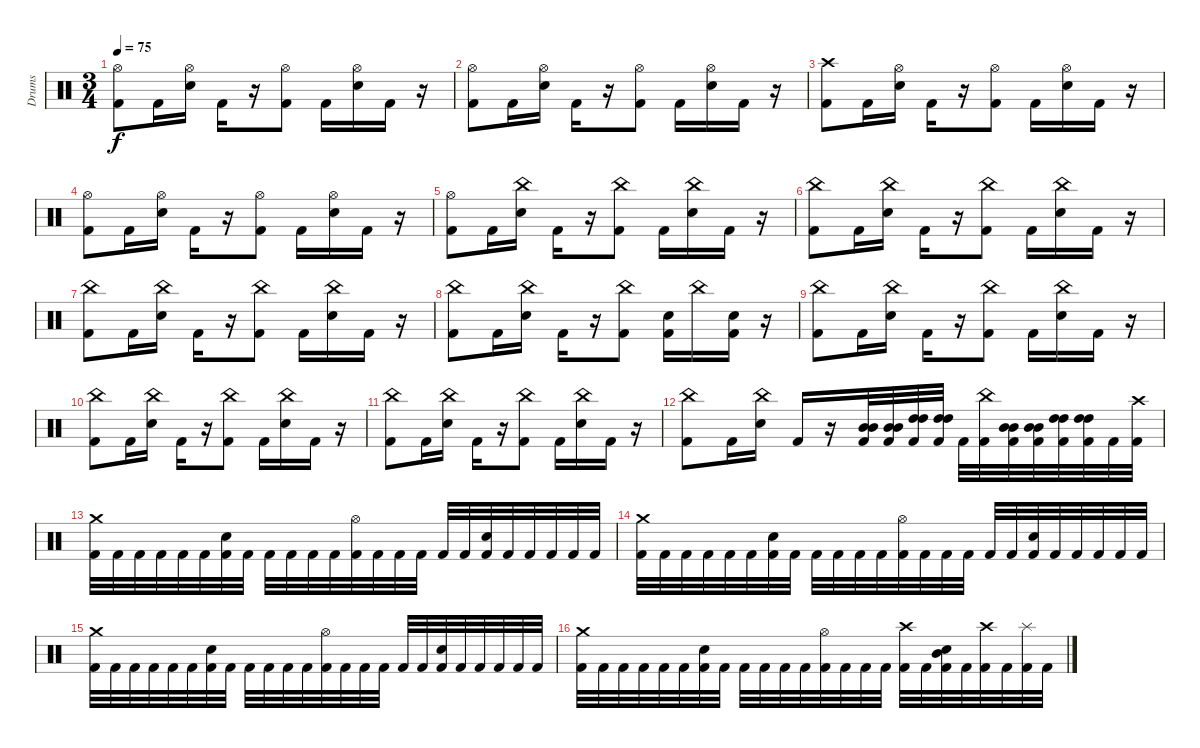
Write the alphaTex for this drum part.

\track ("Drums" "Drums") {instrument percussion}
\staff {score}
\articulation defaults
\ts (3 4)
\tempo 75
\clef neutral
\ks c
("Hi-Hat (open)" "Kick (hit) 2").8{dy f} "Kick (hit) 2".16 ("Hi-Hat (open)" "Snare (hit) 2").16 "Kick (hit) 2".16 r.16 ("Hi-Hat (open)" "Kick (hit) 2").8 "Kick (hit) 2".16 ("Hi-Hat (open)" "Snare (hit) 2").16 "Kick (hit) 2".16 r.16 |
("Hi-Hat (open)" "Kick (hit) 2").8 "Kick (hit) 2".16 ("Hi-Hat (open)" "Snare (hit) 2").16 "Kick (hit) 2".16 r.16 ("Hi-Hat (open)" "Kick (hit) 2").8 "Kick (hit) 2".16 ("Hi-Hat (open)" "Snare (hit) 2").16 "Kick (hit) 2".16 r.16 |
("Crash high (hit)" "Kick (hit) 2").8 "Kick (hit) 2".16 ("Hi-Hat (open)" "Snare (hit) 2").16 "Kick (hit) 2".16 r.16 ("Hi-Hat (open)" "Kick (hit) 2").8 "Kick (hit) 2".16 ("Hi-Hat (open)" "Snare (hit) 2").16 "Kick (hit) 2".16 r.16 |
("Hi-Hat (open)" "Kick (hit) 2").8 "Kick (hit) 2".16 ("Hi-Hat (open)" "Snare (hit) 2").16 "Kick (hit) 2".16 r.16 ("Hi-Hat (open)" "Kick (hit) 2").8 "Kick (hit) 2".16 ("Hi-Hat (open)" "Snare (hit) 2").16 "Kick (hit) 2".16 r.16 |
("Hi-Hat (open)" "Kick (hit) 2").8 "Kick (hit) 2".16 ("China (hit)" "Snare (hit) 2").16 "Kick (hit) 2".16 r.16 ("China (hit)" "Kick (hit) 2").8 "Kick (hit) 2".16 ("China (hit)" "Snare (hit) 2").16 "Kick (hit) 2".16 r.16 |
("China (hit)" "Kick (hit) 2").8 "Kick (hit) 2".16 ("China (hit)" "Snare (hit) 2").16 "Kick (hit) 2".16 r.16 ("China (hit)" "Kick (hit) 2").8 "Kick (hit) 2".16 ("China (hit)" "Snare (hit) 2").16 "Kick (hit) 2".16 r.16 |
("China (hit)" "Kick (hit) 2").8 "Kick (hit) 2".16 ("China (hit)" "Snare (hit) 2").16 "Kick (hit) 2".16 r.16 ("China (hit)" "Kick (hit) 2").8 "Kick (hit) 2".16 ("China (hit)" "Snare (hit) 2").16 "Kick (hit) 2".16 r.16 |
("China (hit)" "Kick (hit) 2").8 "Kick (hit) 2".16 ("China (hit)" "Snare (hit) 2").16 "Kick (hit) 2".16 r.16 ("China (hit)" "Kick (hit) 2").8 ("Snare (hit) 2" "Kick (hit) 2").16 "China (hit)".16 ("Snare (hit) 2" "Kick (hit) 2").16 r.16 |
("China (hit)" "Kick (hit) 2").8 "Kick (hit) 2".16 ("China (hit)" "Snare (hit) 2").16 "Kick (hit) 2".16 r.16 ("China (hit)" "Kick (hit) 2").8 "Kick (hit) 2".16 ("China (hit)" "Snare (hit) 2").16 "Kick (hit) 2".16 r.16 |
("China (hit)" "Kick (hit) 2").8 "Kick (hit) 2".16 ("China (hit)" "Snare (hit) 2").16 "Kick (hit) 2".16 r.16 ("China (hit)" "Kick (hit) 2").8 "Kick (hit) 2".16 ("China (hit)" "Snare (hit) 2").16 "Kick (hit) 2".16 r.16 |
("China (hit)" "Kick (hit) 2").8 "Kick (hit) 2".16 ("China (hit)" "Snare (hit) 2").16 "Kick (hit) 2".16 r.16 ("China (hit)" "Kick (hit) 2").8 "Kick (hit) 2".16 ("China (hit)" "Snare (hit) 2").16 "Kick (hit) 2".16 r.16 |
("China (hit)" "Kick (hit) 2").8 "Kick (hit) 2".16 ("China (hit)" "Snare (hit) 2").16 "Kick (hit) 2".16 r.16 ("Mid Tom (hit)" "Mid Tom (hit)" "Kick (hit) 2").32 ("Mid Tom (hit)" "Mid Tom (hit)" "Kick (hit) 2").32 ("High Tom (hit)" "High Tom (hit)" "Kick (hit) 2").32 ("High Tom (hit)" "High Tom (hit)" "Kick (hit) 2").32 "Kick (hit) 2".32 ("China (hit)" "Kick (hit) 2").32 ("Mid Tom (hit)" "Mid Tom (hit)" "Kick (hit) 2").32 ("Mid Tom (hit)" "Mid Tom (hit)" "Kick (hit) 2").32 ("High Tom (hit)" "High Tom (hit)" "Kick (hit) 2").32 ("High Tom (hit)" "High Tom (hit)" "Kick (hit) 2").32 "Kick (hit) 2".32 ("Crash high (hit)" "Kick (hit) 2").32 |
("Crash medium (hit)" "Kick (hit) 2").32 "Kick (hit) 2".32 "Kick (hit) 2".32 "Kick (hit) 2".32 "Kick (hit) 2".32 "Kick (hit) 2".32 ("Snare (hit) 2" "Kick (hit) 2").32 "Kick (hit) 2".32 "Kick (hit) 2".32 "Kick (hit) 2".32 "Kick (hit) 2".32 "Kick (hit) 2".32 ("Hi-Hat (open)" "Kick (hit) 2").32 "Kick (hit) 2".32 "Kick (hit) 2".32 "Kick (hit) 2".32 "Kick (hit) 2".32 "Kick (hit) 2".32 ("Snare (hit) 2" "Kick (hit) 2").32 "Kick (hit) 2".32 "Kick (hit) 2".32 "Kick (hit) 2".32 "Kick (hit) 2".32 "Kick (hit) 2".32 |
("Crash medium (hit)" "Kick (hit) 2").32 "Kick (hit) 2".32 "Kick (hit) 2".32 "Kick (hit) 2".32 "Kick (hit) 2".32 "Kick (hit) 2".32 ("Snare (hit) 2" "Kick (hit) 2").32 "Kick (hit) 2".32 "Kick (hit) 2".32 "Kick (hit) 2".32 "Kick (hit) 2".32 "Kick (hit) 2".32 ("Hi-Hat (open)" "Kick (hit) 2").32 "Kick (hit) 2".32 "Kick (hit) 2".32 "Kick (hit) 2".32 "Kick (hit) 2".32 "Kick (hit) 2".32 ("Snare (hit) 2" "Kick (hit) 2").32 "Kick (hit) 2".32 "Kick (hit) 2".32 "Kick (hit) 2".32 "Kick (hit) 2".32 "Kick (hit) 2".32 |
("Crash medium (hit)" "Kick (hit) 2").32 "Kick (hit) 2".32 "Kick (hit) 2".32 "Kick (hit) 2".32 "Kick (hit) 2".32 "Kick (hit) 2".32 ("Snare (hit) 2" "Kick (hit) 2").32 "Kick (hit) 2".32 "Kick (hit) 2".32 "Kick (hit) 2".32 "Kick (hit) 2".32 "Kick (hit) 2".32 ("Hi-Hat (open)" "Kick (hit) 2").32 "Kick (hit) 2".32 "Kick (hit) 2".32 "Kick (hit) 2".32 "Kick (hit) 2".32 "Kick (hit) 2".32 ("Snare (hit) 2" "Kick (hit) 2").32 "Kick (hit) 2".32 "Kick (hit) 2".32 "Kick (hit) 2".32 "Kick (hit) 2".32 "Kick (hit) 2".32 |
("Crash medium (hit)" "Kick (hit) 2").32 "Kick (hit) 2".32 "Kick (hit) 2".32 "Kick (hit) 2".32 "Kick (hit) 2".32 "Kick (hit) 2".32 ("Snare (hit) 2" "Kick (hit) 2").32 "Kick (hit) 2".32 "Kick (hit) 2".32 "Kick (hit) 2".32 "Kick (hit) 2".32 "Kick (hit) 2".32 ("Hi-Hat (open)" "Kick (hit) 2").32 "Kick (hit) 2".32 "Kick (hit) 2".32 "Kick (hit) 2".32 ("Crash high (hit)" "Kick (hit) 2").32 "Kick (hit) 2".32 ("Mid Tom (hit)" "Snare (hit) 2" "Kick (hit) 2").32 "Kick (hit) 2".32 ("Crash high (hit)" "Kick (hit) 2").32 "Kick (hit) 2".32 ("Splash (hit)" "Kick (hit) 2").32 "Kick (hit) 2".32
